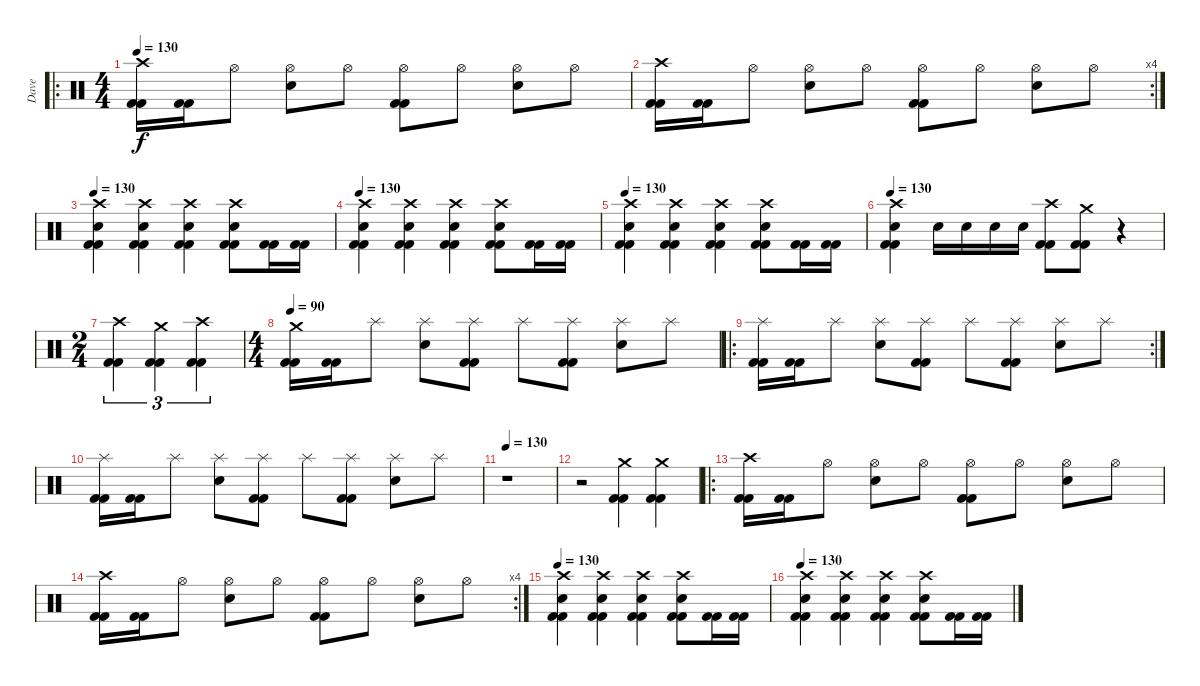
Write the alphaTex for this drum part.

\track ("Dave" "Dave") {instrument percussion}
\staff {score}
\articulation defaults
\ro
\ts (4 4)
\tempo 130
\clef neutral
\ks c
("Crash high (hit)" "Kick (hit) 2" "Kick (hit) 2").16{dy f} ("Kick (hit) 2" "Kick (hit) 2").16 "Hi-Hat (open)".8 ("Hi-Hat (open)" "Electric Snare (hit)").8 "Hi-Hat (open)".8 ("Hi-Hat (open)" "Kick (hit) 2" "Kick (hit) 2").8 "Hi-Hat (open)".8 ("Hi-Hat (open)" "Electric Snare (hit)").8 "Hi-Hat (open)".8 |
\rc 4
("Crash high (hit)" "Kick (hit) 2" "Kick (hit) 2").16 ("Kick (hit) 2" "Kick (hit) 2").16 "Hi-Hat (open)".8 ("Hi-Hat (open)" "Electric Snare (hit)").8 "Hi-Hat (open)".8 ("Hi-Hat (open)" "Kick (hit) 2" "Kick (hit) 2").8 "Hi-Hat (open)".8 ("Hi-Hat (open)" "Electric Snare (hit)").8 "Hi-Hat (open)".8 |
\tempo 130
("Crash high (hit)" "Electric Snare (hit)" "Kick (hit) 2" "Kick (hit) 2").4 ("Crash high (hit)" "Electric Snare (hit)" "Kick (hit) 2" "Kick (hit) 2").4 ("Crash high (hit)" "Electric Snare (hit)" "Kick (hit) 2" "Kick (hit) 2").4 ("Crash high (hit)" "Electric Snare (hit)" "Kick (hit) 2" "Kick (hit) 2").8 ("Kick (hit) 2" "Kick (hit) 2").16 ("Kick (hit) 2" "Kick (hit) 2").16 |
\tempo 130
("Crash high (hit)" "Electric Snare (hit)" "Kick (hit) 2" "Kick (hit) 2").4 ("Crash high (hit)" "Electric Snare (hit)" "Kick (hit) 2" "Kick (hit) 2").4 ("Crash high (hit)" "Electric Snare (hit)" "Kick (hit) 2" "Kick (hit) 2").4 ("Crash high (hit)" "Electric Snare (hit)" "Kick (hit) 2" "Kick (hit) 2").8 ("Kick (hit) 2" "Kick (hit) 2").16 ("Kick (hit) 2" "Kick (hit) 2").16 |
\tempo 130
("Crash high (hit)" "Electric Snare (hit)" "Kick (hit) 2" "Kick (hit) 2").4 ("Crash high (hit)" "Electric Snare (hit)" "Kick (hit) 2" "Kick (hit) 2").4 ("Crash high (hit)" "Electric Snare (hit)" "Kick (hit) 2" "Kick (hit) 2").4 ("Crash high (hit)" "Electric Snare (hit)" "Kick (hit) 2" "Kick (hit) 2").8 ("Kick (hit) 2" "Kick (hit) 2").16 ("Kick (hit) 2" "Kick (hit) 2").16 |
\tempo 130
("Crash high (hit)" "Electric Snare (hit)" "Kick (hit) 2" "Kick (hit) 2").4 "Electric Snare (hit)".16 "Electric Snare (hit)".16 "Electric Snare (hit)".16 "Electric Snare (hit)".16 ("Crash high (hit)" "Kick (hit) 2" "Kick (hit) 2").8 ("Crash medium (hit)" "Kick (hit) 2" "Kick (hit) 2").8 r.4 |
\ts (2 4)
("Crash high (hit)" "Kick (hit) 2" "Kick (hit) 2").4{tu (3 2)} ("Crash medium (hit)" "Kick (hit) 2" "Kick (hit) 2").4{tu (3 2)} ("Crash high (hit)" "Kick (hit) 2" "Kick (hit) 2").4{tu (3 2)} |
\ts (4 4)
\tempo 80
\tempo 90
("Crash medium (hit)" "Kick (hit) 2" "Kick (hit) 2").16 ("Kick (hit) 2" "Kick (hit) 2").16 "Splash (hit)".8 ("Splash (hit)" "Electric Snare (hit)").8 ("Splash (hit)" "Kick (hit) 2" "Kick (hit) 2").8 "Splash (hit)".8 ("Splash (hit)" "Kick (hit) 2" "Kick (hit) 2").8 ("Splash (hit)" "Electric Snare (hit)").8 "Splash (hit)".8 |
\ro
\rc 2
("Splash (hit)" "Kick (hit) 2" "Kick (hit) 2").16 ("Kick (hit) 2" "Kick (hit) 2").16 "Splash (hit)".8 ("Splash (hit)" "Electric Snare (hit)").8 ("Splash (hit)" "Kick (hit) 2" "Kick (hit) 2").8 "Splash (hit)".8 ("Splash (hit)" "Kick (hit) 2" "Kick (hit) 2").8 ("Splash (hit)" "Electric Snare (hit)").8 "Splash (hit)".8 |
("Splash (hit)" "Kick (hit) 2" "Kick (hit) 2").16 ("Kick (hit) 2" "Kick (hit) 2").16 "Splash (hit)".8 ("Splash (hit)" "Electric Snare (hit)").8 ("Splash (hit)" "Kick (hit) 2" "Kick (hit) 2").8 "Splash (hit)".8 ("Splash (hit)" "Kick (hit) 2" "Kick (hit) 2").8 ("Splash (hit)" "Electric Snare (hit)").8 "Splash (hit)".8 |
\tempo 130
r.1 |
r.2 ("Crash medium (hit)" "Kick (hit) 2" "Kick (hit) 2").4 ("Crash medium (hit)" "Kick (hit) 2" "Kick (hit) 2").4 |
\ro
("Crash high (hit)" "Kick (hit) 2" "Kick (hit) 2").16 ("Kick (hit) 2" "Kick (hit) 2").16 "Hi-Hat (open)".8 ("Hi-Hat (open)" "Electric Snare (hit)").8 "Hi-Hat (open)".8 ("Hi-Hat (open)" "Kick (hit) 2" "Kick (hit) 2").8 "Hi-Hat (open)".8 ("Hi-Hat (open)" "Electric Snare (hit)").8 "Hi-Hat (open)".8 |
\rc 4
("Crash high (hit)" "Kick (hit) 2" "Kick (hit) 2").16 ("Kick (hit) 2" "Kick (hit) 2").16 "Hi-Hat (open)".8 ("Hi-Hat (open)" "Electric Snare (hit)").8 "Hi-Hat (open)".8 ("Hi-Hat (open)" "Kick (hit) 2" "Kick (hit) 2").8 "Hi-Hat (open)".8 ("Hi-Hat (open)" "Electric Snare (hit)").8 "Hi-Hat (open)".8 |
\tempo 130
("Crash high (hit)" "Electric Snare (hit)" "Kick (hit) 2" "Kick (hit) 2").4 ("Crash high (hit)" "Electric Snare (hit)" "Kick (hit) 2" "Kick (hit) 2").4 ("Crash high (hit)" "Electric Snare (hit)" "Kick (hit) 2" "Kick (hit) 2").4 ("Crash high (hit)" "Electric Snare (hit)" "Kick (hit) 2" "Kick (hit) 2").8 ("Kick (hit) 2" "Kick (hit) 2").16 ("Kick (hit) 2" "Kick (hit) 2").16 |
\tempo 130
("Crash high (hit)" "Electric Snare (hit)" "Kick (hit) 2" "Kick (hit) 2").4 ("Crash high (hit)" "Electric Snare (hit)" "Kick (hit) 2" "Kick (hit) 2").4 ("Crash high (hit)" "Electric Snare (hit)" "Kick (hit) 2" "Kick (hit) 2").4 ("Crash high (hit)" "Electric Snare (hit)" "Kick (hit) 2" "Kick (hit) 2").8 ("Kick (hit) 2" "Kick (hit) 2").16 ("Kick (hit) 2" "Kick (hit) 2").16
